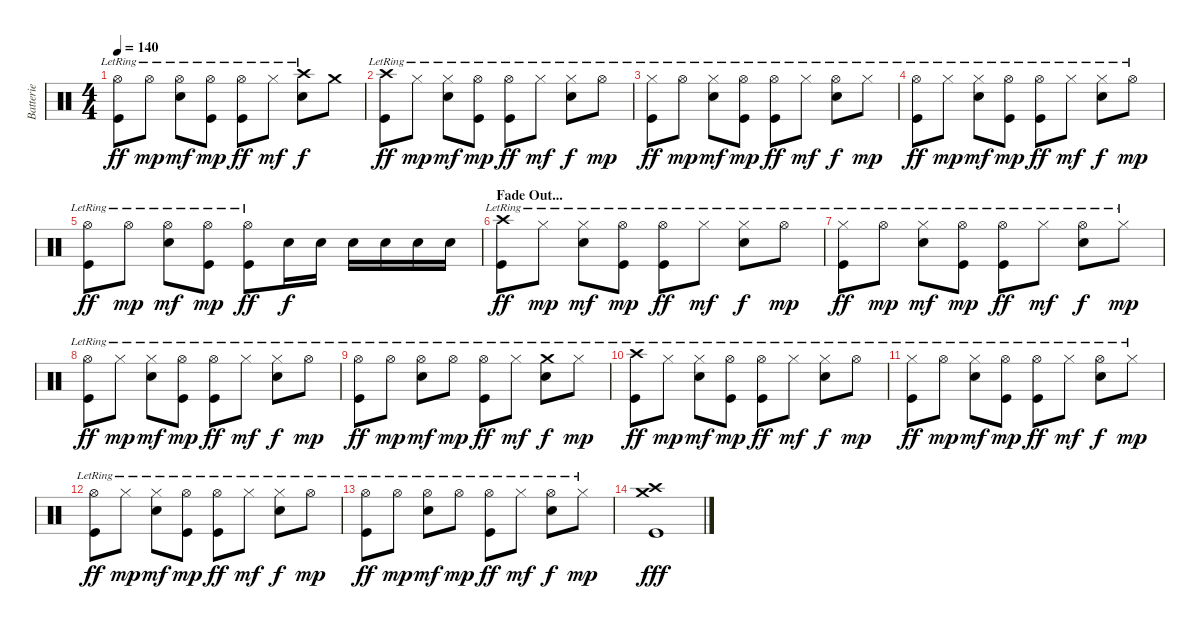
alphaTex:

\track ("Batterie" "Batterie") {instrument percussion}
\staff {score}
\articulation defaults
\ts (4 4)
\tempo 140
\clef neutral
\ks c
("Hi-Hat (open)"{lr} "Kick (hit)"{lr}).8{dy ff} "Hi-Hat (open)"{lr}.8{dy mp} ("Hi-Hat (open)"{lr} "Snare (hit) 2"{lr}).8{dy mf} ("Hi-Hat (open)"{lr} "Kick (hit)").8{dy mp} ("Hi-Hat (open)"{lr} "Kick (hit)"{lr}).8{dy ff} "Hi-Hat (closed)"{lr}.8{dy mf} ("Crash high (hit)" "Snare (hit) 2"{lr}).8{dy f} "Crash medium (hit)".8 |
("Crash high (hit)" "Kick (hit)"{lr}).8{dy ff} "Hi-Hat (closed)"{lr}.8{dy mp} ("Hi-Hat (closed)"{lr} "Snare (hit) 2"{lr}).8{dy mf} ("Hi-Hat (open)"{lr} "Kick (hit)").8{dy mp} ("Hi-Hat (open)"{lr} "Kick (hit)"{lr}).8{dy ff} "Hi-Hat (closed)"{lr}.8{dy mf} ("Hi-Hat (closed)"{lr} "Snare (hit) 2"{lr}).8{dy f} "Hi-Hat (open)"{lr}.8{dy mp} |
("Hi-Hat (closed)"{lr} "Kick (hit)"{lr}).8{dy ff} "Hi-Hat (open)"{lr}.8{dy mp} ("Hi-Hat (closed)"{lr} "Snare (hit) 2"{lr}).8{dy mf} ("Hi-Hat (open)"{lr} "Kick (hit)").8{dy mp} ("Hi-Hat (open)"{lr} "Kick (hit)"{lr}).8{dy ff} "Hi-Hat (closed)"{lr}.8{dy mf} ("Hi-Hat (open)"{lr} "Snare (hit) 2"{lr}).8{dy f} "Hi-Hat (closed)"{lr}.8{dy mp} |
("Hi-Hat (open)" "Kick (hit)"{lr}).8{dy ff} "Hi-Hat (closed)"{lr}.8{dy mp} ("Hi-Hat (closed)"{lr} "Snare (hit) 2"{lr}).8{dy mf} ("Hi-Hat (open)"{lr} "Kick (hit)").8{dy mp} ("Hi-Hat (open)"{lr} "Kick (hit)"{lr}).8{dy ff} "Hi-Hat (closed)"{lr}.8{dy mf} ("Hi-Hat (closed)"{lr} "Snare (hit) 2"{lr}).8{dy f} "Hi-Hat (open)"{lr}.8{dy mp} |
("Hi-Hat (open)"{lr} "Kick (hit)"{lr}).8{dy ff} "Hi-Hat (open)"{lr}.8{dy mp} ("Hi-Hat (open)"{lr} "Snare (hit) 2"{lr}).8{dy mf} ("Hi-Hat (open)"{lr} "Kick (hit)").8{dy mp} ("Hi-Hat (open)"{lr} "Kick (hit)"{lr}).8{dy ff} "Snare (hit) 2".16{dy f} "Snare (hit) 2".16 "Snare (hit) 2".16 "Snare (hit) 2".16 "Snare (hit) 2".16 "Snare (hit) 2".16 |
\section ("" "Fade Out...")
("Crash high (hit)"{lr} "Kick (hit)"{lr}).8{dy ff} "Hi-Hat (closed)"{lr}.8{dy mp} ("Hi-Hat (closed)"{lr} "Snare (hit) 2"{lr}).8{dy mf} ("Hi-Hat (open)"{lr} "Kick (hit)").8{dy mp} ("Hi-Hat (open)"{lr} "Kick (hit)"{lr}).8{dy ff} "Hi-Hat (closed)"{lr}.8{dy mf} ("Hi-Hat (closed)"{lr} "Snare (hit) 2"{lr}).8{dy f} "Hi-Hat (open)"{lr}.8{dy mp} |
("Hi-Hat (closed)"{lr} "Kick (hit)"{lr}).8{dy ff} "Hi-Hat (open)"{lr}.8{dy mp} ("Hi-Hat (closed)"{lr} "Snare (hit) 2"{lr}).8{dy mf} ("Hi-Hat (open)"{lr} "Kick (hit)").8{dy mp} ("Hi-Hat (open)"{lr} "Kick (hit)"{lr}).8{dy ff} "Hi-Hat (closed)"{lr}.8{dy mf} ("Hi-Hat (open)"{lr} "Snare (hit) 2"{lr}).8{dy f} "Hi-Hat (closed)"{lr}.8{dy mp} |
("Hi-Hat (open)" "Kick (hit)"{lr}).8{dy ff} "Hi-Hat (closed)"{lr}.8{dy mp} ("Hi-Hat (closed)"{lr} "Snare (hit) 2"{lr}).8{dy mf} ("Hi-Hat (open)"{lr} "Kick (hit)").8{dy mp} ("Hi-Hat (open)"{lr} "Kick (hit)"{lr}).8{dy ff} "Hi-Hat (closed)"{lr}.8{dy mf} ("Hi-Hat (closed)"{lr} "Snare (hit) 2"{lr}).8{dy f} "Hi-Hat (open)"{lr}.8{dy mp} |
("Hi-Hat (open)"{lr} "Kick (hit)"{lr}).8{dy ff} "Hi-Hat (open)"{lr}.8{dy mp} ("Hi-Hat (open)"{lr} "Snare (hit) 2"{lr}).8{dy mf} "Hi-Hat (open)"{lr}.8{dy mp} ("Hi-Hat (open)"{lr} "Kick (hit)"{lr}).8{dy ff} "Hi-Hat (closed)"{lr}.8{dy mf} ("Crash medium (hit)" "Snare (hit) 2"{lr}).8{dy f} "Hi-Hat (closed)"{lr}.8{dy mp} |
("Crash high (hit)" "Kick (hit)"{lr}).8{dy ff} "Hi-Hat (closed)"{lr}.8{dy mp} ("Hi-Hat (closed)"{lr} "Snare (hit) 2"{lr}).8{dy mf} ("Hi-Hat (open)"{lr} "Kick (hit)").8{dy mp} ("Hi-Hat (open)"{lr} "Kick (hit)"{lr}).8{dy ff} "Hi-Hat (closed)"{lr}.8{dy mf} ("Hi-Hat (closed)"{lr} "Snare (hit) 2"{lr}).8{dy f} "Hi-Hat (open)"{lr}.8{dy mp} |
("Hi-Hat (closed)"{lr} "Kick (hit)"{lr}).8{dy ff} "Hi-Hat (open)"{lr}.8{dy mp} ("Hi-Hat (closed)"{lr} "Snare (hit) 2"{lr}).8{dy mf} ("Hi-Hat (open)"{lr} "Kick (hit)").8{dy mp} ("Hi-Hat (open)"{lr} "Kick (hit)"{lr}).8{dy ff} "Hi-Hat (closed)"{lr}.8{dy mf} ("Hi-Hat (open)"{lr} "Snare (hit) 2"{lr}).8{dy f} "Hi-Hat (closed)"{lr}.8{dy mp} |
("Hi-Hat (open)" "Kick (hit)"{lr}).8{dy ff} "Hi-Hat (closed)"{lr}.8{dy mp} ("Hi-Hat (closed)"{lr} "Snare (hit) 2"{lr}).8{dy mf} ("Hi-Hat (open)"{lr} "Kick (hit)").8{dy mp} ("Hi-Hat (open)"{lr} "Kick (hit)"{lr}).8{dy ff} "Hi-Hat (closed)"{lr}.8{dy mf} ("Hi-Hat (closed)"{lr} "Snare (hit) 2"{lr}).8{dy f} "Hi-Hat (open)"{lr}.8{dy mp} |
("Hi-Hat (open)"{lr} "Kick (hit)"{lr}).8{dy ff} "Hi-Hat (open)"{lr}.8{dy mp} ("Hi-Hat (open)"{lr} "Snare (hit) 2"{lr}).8{dy mf} "Hi-Hat (open)"{lr}.8{dy mp} ("Hi-Hat (open)"{lr} "Kick (hit)"{lr}).8{dy ff} "Hi-Hat (closed)"{lr}.8{dy mf} ("Hi-Hat (open)"{lr} "Snare (hit) 2"{lr}).8{dy f} "Hi-Hat (closed)"{lr}.8{dy mp} |
("Crash medium (hit)" "Crash high (hit)" "Kick (hit)").1{dy fff}
